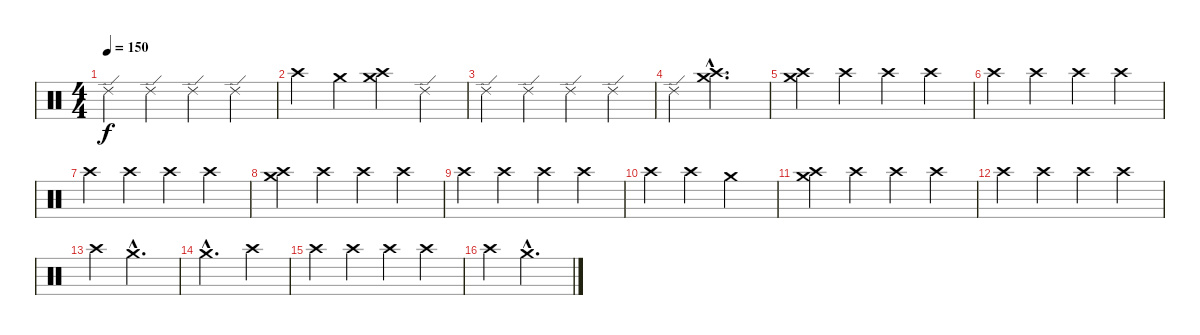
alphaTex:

\track "" {instrument percussion}
\staff {score}
\articulation defaults
\ts (4 4)
\tempo 150
\clef neutral
\ks c "Ride (edge) 2".4{dy f} "Ride (edge) 2".4 "Ride (edge) 2".4 "Ride (edge) 2".4
|
"Crash high (hit)".4 "Crash medium (hit)".4 ("Crash medium (hit)" "Crash high (hit)").4 "Ride (edge) 2".4 |
"Ride (edge) 2".4 "Ride (edge) 2".4 "Ride (edge) 2".4 "Ride (edge) 2".4 |
"Ride (edge) 2".4 ("Crash medium (hit)"{hac} "Crash high (hit)"{hac}).2{d} |
("Crash medium (hit)" "Crash high (hit)").4 "Crash high (hit)".4 "Crash high (hit)".4 "Crash high (hit)".4 |
"Crash high (hit)".4 "Crash high (hit)".4 "Crash high (hit)".4 "Crash high (hit)".4 |
"Crash high (hit)".4 "Crash high (hit)".4 "Crash high (hit)".4 "Crash high (hit)".4 |
("Crash medium (hit)" "Crash high (hit)").4 "Crash high (hit)".4 "Crash high (hit)".4 "Crash high (hit)".4 |
"Crash high (hit)".4 "Crash high (hit)".4 "Crash high (hit)".4 "Crash high (hit)".4 |
"Crash high (hit)".4 "Crash high (hit)".4 "Crash medium (hit)".2 |
("Crash medium (hit)" "Crash high (hit)").4 "Crash high (hit)".4 "Crash high (hit)".4 "Crash high (hit)".4 |
"Crash high (hit)".4 "Crash high (hit)".4 "Crash high (hit)".4 "Crash high (hit)".4 |
"Crash high (hit)".4 "Crash medium (hit)"{hac}.2{d} |
"Crash medium (hit)"{hac}.2{d} "Crash high (hit)".4 |
"Crash high (hit)".4 "Crash high (hit)".4 "Crash high (hit)".4 "Crash high (hit)".4 |
"Crash high (hit)".4 "Crash medium (hit)"{hac}.2{d}
